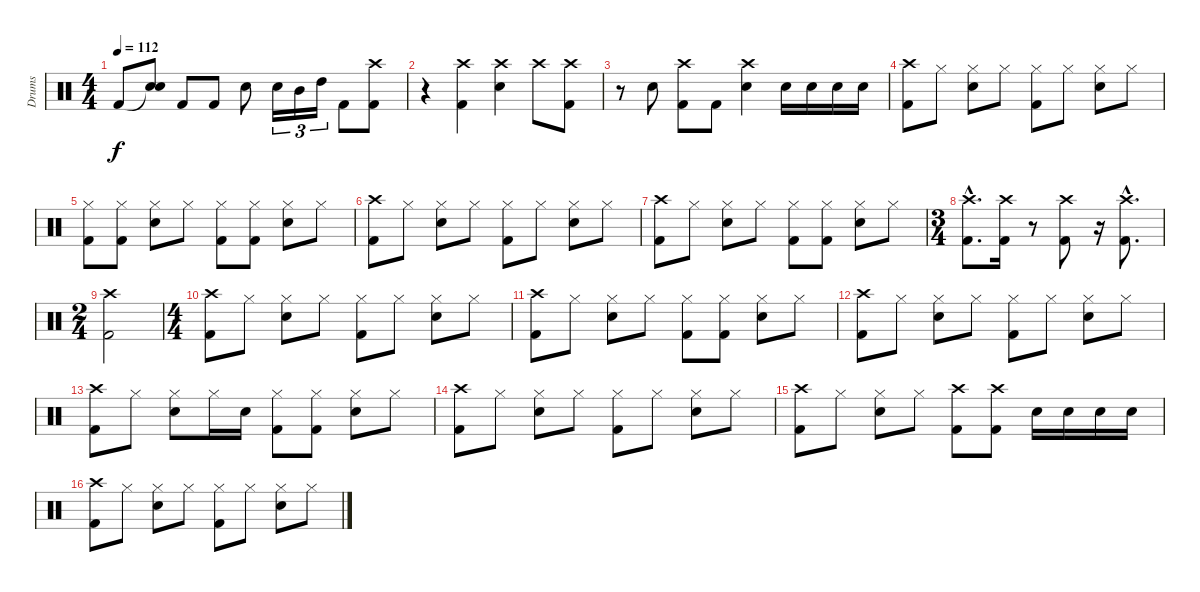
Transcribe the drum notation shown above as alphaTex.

\track ("Drums" "Drums") {instrument percussion}
\staff {score}
\articulation defaults
\ts (4 4)
\tempo 112
\clef neutral
\ks c "Kick (hit) 2".8{dy f}
("Snare (hit)"{t} "Electric Snare (hit)").8 "Kick (hit) 2".8 "Kick (hit) 2".8 "Electric Snare (hit)".8 "Electric Snare (hit)".16{tu (3 2)} "Mid Tom (hit)".16{tu (3 2)} "High Tom (hit)".16{tu (3 2)} "Kick (hit) 2".8 ("Crash high (hit)" "Kick (hit) 2").8 |
r.4 ("Crash high (hit)" "Kick (hit) 2").4 ("Crash high (hit)" "Electric Snare (hit)").4 "Crash high (hit)".8 ("Crash high (hit)" "Kick (hit) 2").8 |
r.8 "Electric Snare (hit)".8 ("Crash high (hit)" "Kick (hit) 2").8 "Kick (hit) 2".8 ("Crash high (hit)" "Electric Snare (hit)").4 "Electric Snare (hit)".16 "Electric Snare (hit)".16 "Electric Snare (hit)".16 "Electric Snare (hit)".16 |
("Crash high (hit)" "Kick (hit) 2").8 "Hi-Hat (closed)".8 ("Hi-Hat (closed)" "Electric Snare (hit)").8 "Hi-Hat (closed)".8 ("Hi-Hat (closed)" "Kick (hit) 2").8 "Hi-Hat (closed)".8 ("Hi-Hat (closed)" "Electric Snare (hit)").8 "Hi-Hat (closed)".8 |
("Hi-Hat (closed)" "Kick (hit) 2").8 ("Hi-Hat (closed)" "Kick (hit) 2").8 ("Hi-Hat (closed)" "Electric Snare (hit)").8 "Hi-Hat (closed)".8 ("Hi-Hat (closed)" "Kick (hit) 2").8 ("Hi-Hat (closed)" "Kick (hit) 2").8 ("Hi-Hat (closed)" "Electric Snare (hit)").8 "Hi-Hat (closed)".8 |
("Crash high (hit)" "Kick (hit) 2").8 "Hi-Hat (closed)".8 ("Hi-Hat (closed)" "Electric Snare (hit)").8 "Hi-Hat (closed)".8 ("Hi-Hat (closed)" "Kick (hit) 2").8 "Hi-Hat (closed)".8 ("Hi-Hat (closed)" "Electric Snare (hit)").8 "Hi-Hat (closed)".8 |
("Crash high (hit)" "Kick (hit) 2").8 "Hi-Hat (closed)".8 ("Hi-Hat (closed)" "Electric Snare (hit)").8 "Hi-Hat (closed)".8 ("Hi-Hat (closed)" "Kick (hit) 2").8 ("Hi-Hat (closed)" "Kick (hit) 2").8 ("Hi-Hat (closed)" "Electric Snare (hit)").8 "Hi-Hat (closed)".8 |
\ts (3 4)
("Crash high (hit)"{hac} "Kick (hit) 2"{hac}).8{d} ("Crash high (hit)" "Kick (hit) 2").16 r.8 ("Crash high (hit)" "Kick (hit) 2").8 r.16 ("Crash high (hit)"{hac} "Kick (hit) 2"{hac}).8{d} |
\ts (2 4)
("Crash high (hit)" "Kick (hit) 2").2 |
\ts (4 4)
("Crash high (hit)" "Kick (hit) 2").8 "Hi-Hat (closed)".8 ("Hi-Hat (closed)" "Electric Snare (hit)").8 "Hi-Hat (closed)".8 ("Hi-Hat (closed)" "Kick (hit) 2").8 "Hi-Hat (closed)".8 ("Hi-Hat (closed)" "Electric Snare (hit)").8 "Hi-Hat (closed)".8 |
("Crash high (hit)" "Kick (hit) 2").8 "Hi-Hat (closed)".8 ("Hi-Hat (closed)" "Electric Snare (hit)").8 "Hi-Hat (closed)".8 ("Hi-Hat (closed)" "Kick (hit) 2").8 ("Hi-Hat (closed)" "Kick (hit) 2").8 ("Hi-Hat (closed)" "Electric Snare (hit)").8 "Hi-Hat (closed)".8 |
("Crash high (hit)" "Kick (hit) 2").8 "Hi-Hat (closed)".8 ("Hi-Hat (closed)" "Electric Snare (hit)").8 "Hi-Hat (closed)".8 ("Hi-Hat (closed)" "Kick (hit) 2").8 "Hi-Hat (closed)".8 ("Hi-Hat (closed)" "Electric Snare (hit)").8 "Hi-Hat (closed)".8 |
("Crash high (hit)" "Kick (hit) 2").8 "Hi-Hat (closed)".8 ("Hi-Hat (closed)" "Electric Snare (hit)").8 "Hi-Hat (closed)".16 "Electric Snare (hit)".16 ("Hi-Hat (closed)" "Kick (hit) 2").8 ("Hi-Hat (closed)" "Kick (hit) 2").8 ("Hi-Hat (closed)" "Electric Snare (hit)").8 "Hi-Hat (closed)".8 |
("Crash high (hit)" "Kick (hit) 2").8 "Hi-Hat (closed)".8 ("Hi-Hat (closed)" "Electric Snare (hit)").8 "Hi-Hat (closed)".8 ("Hi-Hat (closed)" "Kick (hit) 2").8 "Hi-Hat (closed)".8 ("Hi-Hat (closed)" "Electric Snare (hit)").8 "Hi-Hat (closed)".8 |
("Crash high (hit)" "Kick (hit) 2").8 "Hi-Hat (closed)".8 ("Hi-Hat (closed)" "Electric Snare (hit)").8 "Hi-Hat (closed)".8 ("Crash high (hit)" "Kick (hit) 2").8 ("Crash high (hit)" "Kick (hit) 2").8 "Electric Snare (hit)".16 "Electric Snare (hit)".16 "Electric Snare (hit)".16 "Electric Snare (hit)".16 |
("Crash high (hit)" "Kick (hit) 2").8 "Hi-Hat (closed)".8 ("Hi-Hat (closed)" "Electric Snare (hit)").8 "Hi-Hat (closed)".8 ("Hi-Hat (closed)" "Kick (hit) 2").8 "Hi-Hat (closed)".8 ("Hi-Hat (closed)" "Electric Snare (hit)").8 "Hi-Hat (closed)".8
